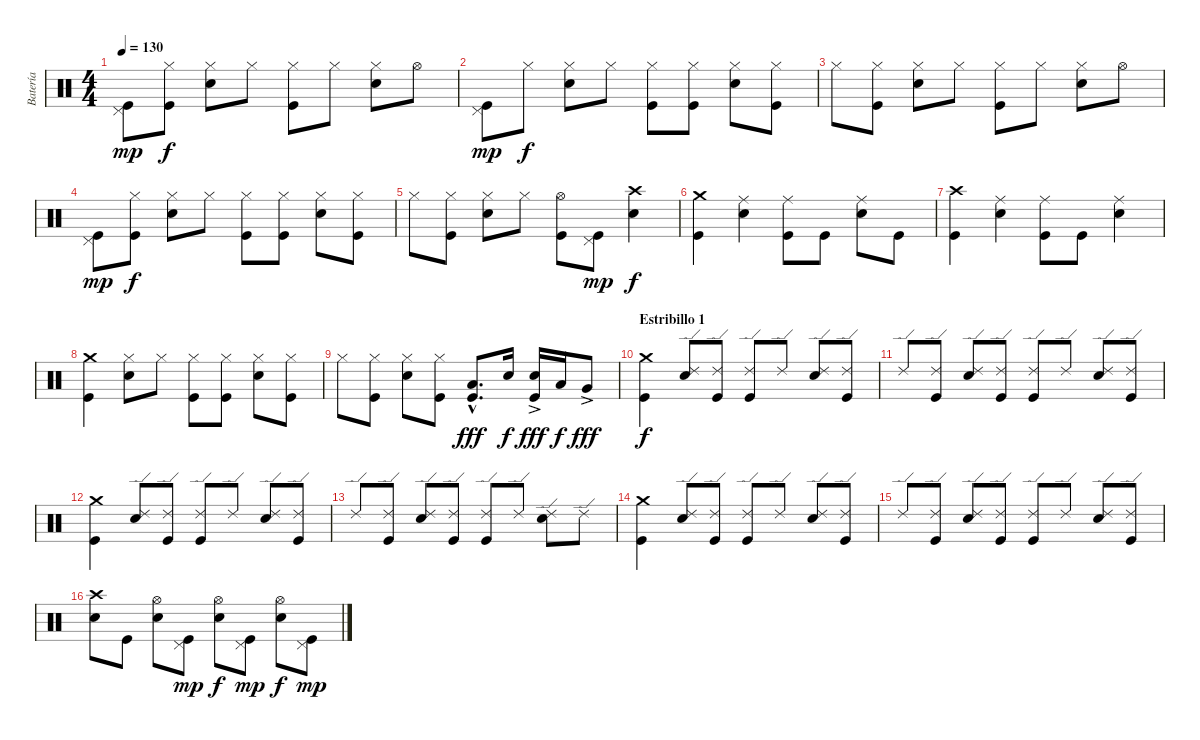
\track ("Batería" "Batería") {instrument percussion}
\staff {score}
\articulation defaults
\ts (4 4)
\tempo 130
\clef neutral
\ks c
("Kick (hit)" "Pedal Hi-Hat (hit)").8{dy mp} ("Kick (hit)" "Hi-Hat (closed)").8{dy f} ("Electric Snare (hit)" "Hi-Hat (closed)").8 "Hi-Hat (closed)".8 ("Kick (hit)" "Hi-Hat (closed)").8 "Hi-Hat (closed)".8 ("Electric Snare (hit)" "Hi-Hat (closed)").8 "Hi-Hat (open)".8 |
("Kick (hit)" "Pedal Hi-Hat (hit)").8{dy mp} "Hi-Hat (closed)".8{dy f} ("Electric Snare (hit)" "Hi-Hat (closed)").8 "Hi-Hat (closed)".8 ("Kick (hit)" "Hi-Hat (closed)").8 ("Kick (hit)" "Hi-Hat (closed)").8 ("Electric Snare (hit)" "Hi-Hat (closed)").8 ("Kick (hit)" "Hi-Hat (closed)").8 |
"Hi-Hat (closed)".8 ("Kick (hit)" "Hi-Hat (closed)").8 ("Electric Snare (hit)" "Hi-Hat (closed)").8 "Hi-Hat (closed)".8 ("Kick (hit)" "Hi-Hat (closed)").8 "Hi-Hat (closed)".8 ("Electric Snare (hit)" "Hi-Hat (closed)").8 "Hi-Hat (open)".8 |
("Kick (hit)" "Pedal Hi-Hat (hit)").8{dy mp} ("Kick (hit)" "Hi-Hat (closed)").8{dy f} ("Electric Snare (hit)" "Hi-Hat (closed)").8 "Hi-Hat (closed)".8 ("Kick (hit)" "Hi-Hat (closed)").8 ("Kick (hit)" "Hi-Hat (closed)").8 ("Electric Snare (hit)" "Hi-Hat (closed)").8 ("Kick (hit)" "Hi-Hat (closed)").8 |
"Hi-Hat (closed)".8 ("Kick (hit)" "Hi-Hat (closed)").8 ("Electric Snare (hit)" "Hi-Hat (closed)").8 "Hi-Hat (closed)".8 ("Kick (hit)" "Hi-Hat (open)").8 ("Kick (hit)" "Pedal Hi-Hat (hit)").8{dy mp} ("Electric Snare (hit)" "Crash high (hit)").4{dy f} |
("Kick (hit)" "Crash medium (hit)").4 ("Electric Snare (hit)" "Ride (middle)").4 ("Kick (hit)" "Ride (middle)").8 "Kick (hit)".8 ("Electric Snare (hit)" "Ride (middle)").8 "Kick (hit)".8 |
("Kick (hit)" "Crash high (hit)").4 ("Electric Snare (hit)" "Ride (middle)").4 ("Kick (hit)" "Ride (middle)").8 "Kick (hit)".8 ("Electric Snare (hit)" "Ride (middle)").4 |
("Kick (hit)" "Crash medium (hit)").4 ("Electric Snare (hit)" "Hi-Hat (closed)").8 "Hi-Hat (closed)".8 ("Kick (hit)" "Hi-Hat (closed)").8 ("Kick (hit)" "Hi-Hat (closed)").8 ("Electric Snare (hit)" "Hi-Hat (closed)").8 ("Kick (hit)" "Hi-Hat (closed)").8 |
"Hi-Hat (closed)".8 ("Kick (hit)" "Hi-Hat (closed)").8 ("Electric Snare (hit)" "Hi-Hat (closed)").8 ("Kick (hit)" "Hi-Hat (closed)").8 ("Kick (hit)"{hac} "Low Tom (hit)"{hac}).8{d dy fff} "Electric Snare (hit)".16{dy f} ("Kick (hit)" "Electric Snare (hit)"{ac}).16{dy fff} "Low Tom (hit)".16{dy f} "Very Low Tom (hit)"{ac}.8{dy fff} |
\section ("" "Estribillo 1")
("Kick (hit)" "Crash medium (hit)").4{dy f} ("Electric Snare (hit)" "Ride (edge) 2").8 ("Kick (hit)" "Ride (edge) 2").8 ("Kick (hit)" "Ride (edge) 2").8 "Ride (edge) 2".8 ("Electric Snare (hit)" "Ride (edge) 2").8 ("Kick (hit)" "Ride (edge) 2").8 |
"Ride (edge) 2".8 ("Kick (hit)" "Ride (edge) 2").8 ("Electric Snare (hit)" "Ride (edge) 2").8 ("Kick (hit)" "Ride (edge) 2").8 ("Kick (hit)" "Ride (edge) 2").8 "Ride (edge) 2".8 ("Electric Snare (hit)" "Ride (edge) 2").8 ("Kick (hit)" "Ride (edge) 2").8 |
("Kick (hit)" "Crash medium (hit)").4 ("Electric Snare (hit)" "Ride (edge) 2").8 ("Kick (hit)" "Ride (edge) 2").8 ("Kick (hit)" "Ride (edge) 2").8 "Ride (edge) 2".8 ("Electric Snare (hit)" "Ride (edge) 2").8 ("Kick (hit)" "Ride (edge) 2").8 |
"Ride (edge) 2".8 ("Kick (hit)" "Ride (edge) 2").8 ("Electric Snare (hit)" "Ride (edge) 2").8 ("Kick (hit)" "Ride (edge) 2").8 ("Kick (hit)" "Ride (edge) 2").8 "Ride (edge) 2".8 ("Electric Snare (hit)" "Ride (edge) 2").8 "Ride (edge) 2".8 |
("Kick (hit)" "Crash medium (hit)").4 ("Electric Snare (hit)" "Ride (edge) 2").8 ("Kick (hit)" "Ride (edge) 2").8 ("Kick (hit)" "Ride (edge) 2").8 "Ride (edge) 2".8 ("Electric Snare (hit)" "Ride (edge) 2").8 ("Kick (hit)" "Ride (edge) 2").8 |
"Ride (edge) 2".8 ("Kick (hit)" "Ride (edge) 2").8 ("Electric Snare (hit)" "Ride (edge) 2").8 ("Kick (hit)" "Ride (edge) 2").8 ("Kick (hit)" "Ride (edge) 2").8 "Ride (edge) 2".8 ("Electric Snare (hit)" "Ride (edge) 2").8 ("Kick (hit)" "Ride (edge) 2").8 |
("Electric Snare (hit)" "Crash high (hit)").8 "Kick (hit)".8 ("Electric Snare (hit)" "Hi-Hat (open)").8 ("Kick (hit)" "Pedal Hi-Hat (hit)").8{dy mp} ("Electric Snare (hit)" "Hi-Hat (open)").8{dy f} ("Kick (hit)" "Pedal Hi-Hat (hit)").8{dy mp} ("Electric Snare (hit)" "Hi-Hat (open)").8{dy f} ("Kick (hit)" "Pedal Hi-Hat (hit)").8{dy mp}
